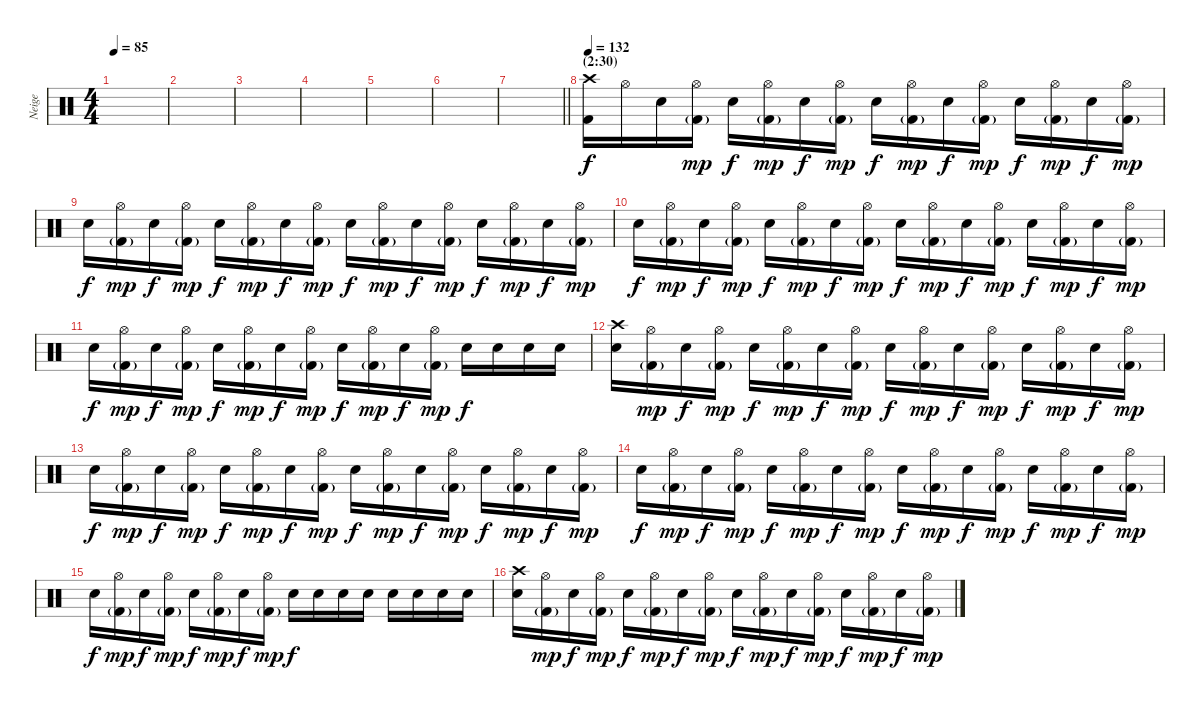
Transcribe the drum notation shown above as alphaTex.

\track ("Neige" "Neige") {instrument percussion}
\staff {score}
\articulation defaults
\ts (4 4)
\tempo 85
\clef neutral
\ks c
|
|
|
|
|
|
\barLineRight lightlight
|
\section ("" "(2:30)")
\tempo 132
("Kick (hit) 2" "Crash high (hit)").16 "Hi-Hat (open)".16 "Snare (hit) 2".16 ("Kick (hit) 2"{g} "Hi-Hat (open)").16{dy mp} "Snare (hit) 2".16{dy f} ("Kick (hit) 2"{g} "Hi-Hat (open)").16{dy mp} "Snare (hit) 2".16{dy f} ("Kick (hit) 2"{g} "Hi-Hat (open)").16{dy mp} "Snare (hit) 2".16{dy f} ("Kick (hit) 2"{g} "Hi-Hat (open)").16{dy mp} "Snare (hit) 2".16{dy f} ("Kick (hit) 2"{g} "Hi-Hat (open)").16{dy mp} "Snare (hit) 2".16{dy f} ("Kick (hit) 2"{g} "Hi-Hat (open)").16{dy mp} "Snare (hit) 2".16{dy f} ("Kick (hit) 2"{g} "Hi-Hat (open)").16{dy mp} |
"Snare (hit) 2".16{dy f} ("Kick (hit) 2"{g} "Hi-Hat (open)").16{dy mp} "Snare (hit) 2".16{dy f} ("Kick (hit) 2"{g} "Hi-Hat (open)").16{dy mp} "Snare (hit) 2".16{dy f} ("Kick (hit) 2"{g} "Hi-Hat (open)").16{dy mp} "Snare (hit) 2".16{dy f} ("Kick (hit) 2"{g} "Hi-Hat (open)").16{dy mp} "Snare (hit) 2".16{dy f} ("Kick (hit) 2"{g} "Hi-Hat (open)").16{dy mp} "Snare (hit) 2".16{dy f} ("Kick (hit) 2"{g} "Hi-Hat (open)").16{dy mp} "Snare (hit) 2".16{dy f} ("Kick (hit) 2"{g} "Hi-Hat (open)").16{dy mp} "Snare (hit) 2".16{dy f} ("Kick (hit) 2"{g} "Hi-Hat (open)").16{dy mp} |
"Snare (hit) 2".16{dy f} ("Kick (hit) 2"{g} "Hi-Hat (open)").16{dy mp} "Snare (hit) 2".16{dy f} ("Kick (hit) 2"{g} "Hi-Hat (open)").16{dy mp} "Snare (hit) 2".16{dy f} ("Kick (hit) 2"{g} "Hi-Hat (open)").16{dy mp} "Snare (hit) 2".16{dy f} ("Kick (hit) 2"{g} "Hi-Hat (open)").16{dy mp} "Snare (hit) 2".16{dy f} ("Kick (hit) 2"{g} "Hi-Hat (open)").16{dy mp} "Snare (hit) 2".16{dy f} ("Kick (hit) 2"{g} "Hi-Hat (open)").16{dy mp} "Snare (hit) 2".16{dy f} ("Kick (hit) 2"{g} "Hi-Hat (open)").16{dy mp} "Snare (hit) 2".16{dy f} ("Kick (hit) 2"{g} "Hi-Hat (open)").16{dy mp} |
"Snare (hit) 2".16{dy f} ("Kick (hit) 2"{g} "Hi-Hat (open)").16{dy mp} "Snare (hit) 2".16{dy f} ("Kick (hit) 2"{g} "Hi-Hat (open)").16{dy mp} "Snare (hit) 2".16{dy f} ("Kick (hit) 2"{g} "Hi-Hat (open)").16{dy mp} "Snare (hit) 2".16{dy f} ("Kick (hit) 2"{g} "Hi-Hat (open)").16{dy mp} "Snare (hit) 2".16{dy f} ("Kick (hit) 2"{g} "Hi-Hat (open)").16{dy mp} "Snare (hit) 2".16{dy f} ("Kick (hit) 2"{g} "Hi-Hat (open)").16{dy mp} "Snare (hit) 2".16{dy f} "Snare (hit) 2".16 "Snare (hit) 2".16 "Snare (hit) 2".16 |
("Snare (hit) 2" "Crash high (hit)").16 ("Kick (hit) 2"{g} "Hi-Hat (open)").16{dy mp} "Snare (hit) 2".16{dy f} ("Kick (hit) 2"{g} "Hi-Hat (open)").16{dy mp} "Snare (hit) 2".16{dy f} ("Kick (hit) 2"{g} "Hi-Hat (open)").16{dy mp} "Snare (hit) 2".16{dy f} ("Kick (hit) 2"{g} "Hi-Hat (open)").16{dy mp} "Snare (hit) 2".16{dy f} ("Kick (hit) 2"{g} "Hi-Hat (open)").16{dy mp} "Snare (hit) 2".16{dy f} ("Kick (hit) 2"{g} "Hi-Hat (open)").16{dy mp} "Snare (hit) 2".16{dy f} ("Kick (hit) 2"{g} "Hi-Hat (open)").16{dy mp} "Snare (hit) 2".16{dy f} ("Kick (hit) 2"{g} "Hi-Hat (open)").16{dy mp} |
"Snare (hit) 2".16{dy f} ("Kick (hit) 2"{g} "Hi-Hat (open)").16{dy mp} "Snare (hit) 2".16{dy f} ("Kick (hit) 2"{g} "Hi-Hat (open)").16{dy mp} "Snare (hit) 2".16{dy f} ("Kick (hit) 2"{g} "Hi-Hat (open)").16{dy mp} "Snare (hit) 2".16{dy f} ("Kick (hit) 2"{g} "Hi-Hat (open)").16{dy mp} "Snare (hit) 2".16{dy f} ("Kick (hit) 2"{g} "Hi-Hat (open)").16{dy mp} "Snare (hit) 2".16{dy f} ("Kick (hit) 2"{g} "Hi-Hat (open)").16{dy mp} "Snare (hit) 2".16{dy f} ("Kick (hit) 2"{g} "Hi-Hat (open)").16{dy mp} "Snare (hit) 2".16{dy f} ("Kick (hit) 2"{g} "Hi-Hat (open)").16{dy mp} |
"Snare (hit) 2".16{dy f} ("Kick (hit) 2"{g} "Hi-Hat (open)").16{dy mp} "Snare (hit) 2".16{dy f} ("Kick (hit) 2"{g} "Hi-Hat (open)").16{dy mp} "Snare (hit) 2".16{dy f} ("Kick (hit) 2"{g} "Hi-Hat (open)").16{dy mp} "Snare (hit) 2".16{dy f} ("Kick (hit) 2"{g} "Hi-Hat (open)").16{dy mp} "Snare (hit) 2".16{dy f} ("Kick (hit) 2"{g} "Hi-Hat (open)").16{dy mp} "Snare (hit) 2".16{dy f} ("Kick (hit) 2"{g} "Hi-Hat (open)").16{dy mp} "Snare (hit) 2".16{dy f} ("Kick (hit) 2"{g} "Hi-Hat (open)").16{dy mp} "Snare (hit) 2".16{dy f} ("Kick (hit) 2"{g} "Hi-Hat (open)").16{dy mp} |
"Snare (hit) 2".16{dy f} ("Kick (hit) 2"{g} "Hi-Hat (open)").16{dy mp} "Snare (hit) 2".16{dy f} ("Kick (hit) 2"{g} "Hi-Hat (open)").16{dy mp} "Snare (hit) 2".16{dy f} ("Kick (hit) 2"{g} "Hi-Hat (open)").16{dy mp} "Snare (hit) 2".16{dy f} ("Kick (hit) 2"{g} "Hi-Hat (open)").16{dy mp} "Snare (hit) 2".16{dy f} "Snare (hit) 2".16 "Snare (hit) 2".16 "Snare (hit) 2".16 "Snare (hit) 2".16 "Snare (hit) 2".16 "Snare (hit) 2".16 "Snare (hit) 2".16 |
("Snare (hit) 2" "Crash high (hit)").16 ("Kick (hit) 2"{g} "Hi-Hat (open)").16{dy mp} "Snare (hit) 2".16{dy f} ("Kick (hit) 2"{g} "Hi-Hat (open)").16{dy mp} "Snare (hit) 2".16{dy f} ("Kick (hit) 2"{g} "Hi-Hat (open)").16{dy mp} "Snare (hit) 2".16{dy f} ("Kick (hit) 2"{g} "Hi-Hat (open)").16{dy mp} "Snare (hit) 2".16{dy f} ("Kick (hit) 2"{g} "Hi-Hat (open)").16{dy mp} "Snare (hit) 2".16{dy f} ("Kick (hit) 2"{g} "Hi-Hat (open)").16{dy mp} "Snare (hit) 2".16{dy f} ("Kick (hit) 2"{g} "Hi-Hat (open)").16{dy mp} "Snare (hit) 2".16{dy f} ("Kick (hit) 2"{g} "Hi-Hat (open)").16{dy mp}
